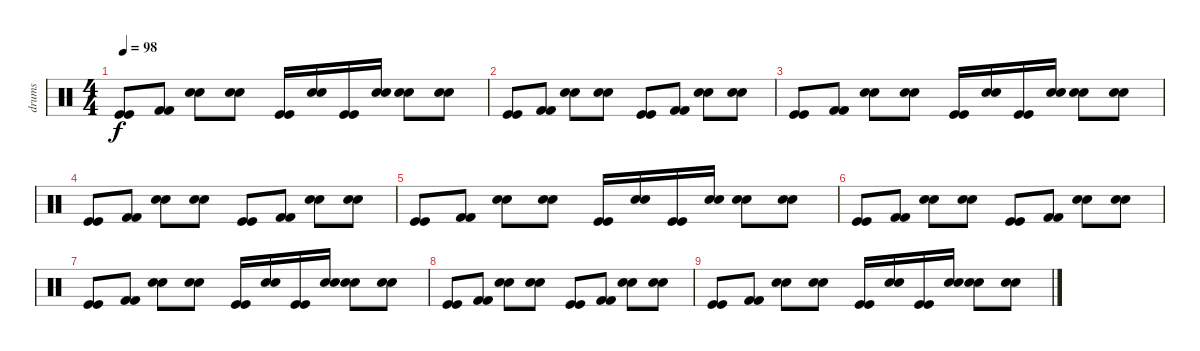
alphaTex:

\track ("drums" "drums") {instrument percussion}
\staff {score}
\articulation defaults
\ts (4 4)
\tempo 98
\clef neutral
\ks c
("Kick (hit)" "Kick (hit)").8{dy f} ("Kick (hit) 2" "Kick (hit) 2").8 ("Snare (hit) 2" "Snare (hit) 2").8 ("Snare (hit) 2" "Snare (hit) 2").8 ("Kick (hit)" "Kick (hit)").16 ("Electric Snare (hit)" "Electric Snare (hit)").16 ("Kick (hit)" "Kick (hit)").16 ("Electric Snare (hit)" "Electric Snare (hit)").16 ("Snare (hit) 2" "Snare (hit) 2").8 ("Snare (hit) 2" "Snare (hit) 2").8 |
("Kick (hit)" "Kick (hit)").8 ("Kick (hit) 2" "Kick (hit) 2").8 ("Snare (hit) 2" "Snare (hit) 2").8 ("Snare (hit) 2" "Snare (hit) 2").8 ("Kick (hit)" "Kick (hit)").8 ("Kick (hit) 2" "Kick (hit) 2").8 ("Snare (hit) 2" "Snare (hit) 2").8 ("Snare (hit) 2" "Snare (hit) 2").8 |
("Kick (hit)" "Kick (hit)").8 ("Kick (hit) 2" "Kick (hit) 2").8 ("Snare (hit) 2" "Snare (hit) 2").8 ("Snare (hit) 2" "Snare (hit) 2").8 ("Kick (hit)" "Kick (hit)").16 ("Electric Snare (hit)" "Electric Snare (hit)").16 ("Kick (hit)" "Kick (hit)").16 ("Electric Snare (hit)" "Electric Snare (hit)").16 ("Snare (hit) 2" "Snare (hit) 2").8 ("Snare (hit) 2" "Snare (hit) 2").8 |
("Kick (hit)" "Kick (hit)").8 ("Kick (hit) 2" "Kick (hit) 2").8 ("Snare (hit) 2" "Snare (hit) 2").8 ("Snare (hit) 2" "Snare (hit) 2").8 ("Kick (hit)" "Kick (hit)").8 ("Kick (hit) 2" "Kick (hit) 2").8 ("Snare (hit) 2" "Snare (hit) 2").8 ("Snare (hit) 2" "Snare (hit) 2").8 |
("Kick (hit)" "Kick (hit)").8 ("Kick (hit) 2" "Kick (hit) 2").8 ("Snare (hit) 2" "Snare (hit) 2").8 ("Snare (hit) 2" "Snare (hit) 2").8 ("Kick (hit)" "Kick (hit)").16 ("Electric Snare (hit)" "Electric Snare (hit)").16 ("Kick (hit)" "Kick (hit)").16 ("Electric Snare (hit)" "Electric Snare (hit)").16 ("Snare (hit) 2" "Snare (hit) 2").8 ("Snare (hit) 2" "Snare (hit) 2").8 |
("Kick (hit)" "Kick (hit)").8 ("Kick (hit) 2" "Kick (hit) 2").8 ("Snare (hit) 2" "Snare (hit) 2").8 ("Snare (hit) 2" "Snare (hit) 2").8 ("Kick (hit)" "Kick (hit)").8 ("Kick (hit) 2" "Kick (hit) 2").8 ("Snare (hit) 2" "Snare (hit) 2").8 ("Snare (hit) 2" "Snare (hit) 2").8 |
("Kick (hit)" "Kick (hit)").8 ("Kick (hit) 2" "Kick (hit) 2").8 ("Snare (hit) 2" "Snare (hit) 2").8 ("Snare (hit) 2" "Snare (hit) 2").8 ("Kick (hit)" "Kick (hit)").16 ("Electric Snare (hit)" "Electric Snare (hit)").16 ("Kick (hit)" "Kick (hit)").16 ("Electric Snare (hit)" "Electric Snare (hit)").16 ("Snare (hit) 2" "Snare (hit) 2").8 ("Snare (hit) 2" "Snare (hit) 2").8 |
("Kick (hit)" "Kick (hit)").8 ("Kick (hit) 2" "Kick (hit) 2").8 ("Snare (hit) 2" "Snare (hit) 2").8 ("Snare (hit) 2" "Snare (hit) 2").8 ("Kick (hit)" "Kick (hit)").8 ("Kick (hit) 2" "Kick (hit) 2").8 ("Snare (hit) 2" "Snare (hit) 2").8 ("Snare (hit) 2" "Snare (hit) 2").8 |
("Kick (hit)" "Kick (hit)").8 ("Kick (hit) 2" "Kick (hit) 2").8 ("Snare (hit) 2" "Snare (hit) 2").8 ("Snare (hit) 2" "Snare (hit) 2").8 ("Kick (hit)" "Kick (hit)").16 ("Electric Snare (hit)" "Electric Snare (hit)").16 ("Kick (hit)" "Kick (hit)").16 ("Electric Snare (hit)" "Electric Snare (hit)").16 ("Snare (hit) 2" "Snare (hit) 2").8 ("Snare (hit) 2" "Snare (hit) 2").8
